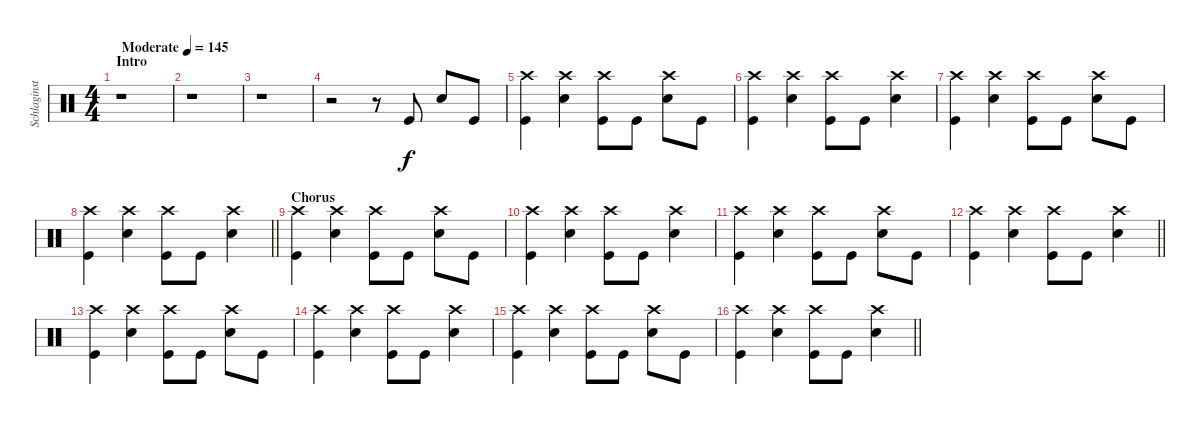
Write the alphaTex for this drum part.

\track ("Schlaginstrumente - Auswahl" "Schlaginst") {instrument percussion}
\staff {score}
\articulation defaults
\ts (4 4)
\section ("" "Intro")
\tempo (145 "Moderate")
\clef neutral
\ks c
r.1{dy f} |
r.1 |
r.1 |
r.2 r.8 "Kick (hit)".8 "Snare (hit) 2".8 "Kick (hit)".8 |
("Kick (hit)" "Crash high (hit)").4 ("Snare (hit) 2" "Crash high (hit)").4 ("Kick (hit)" "Crash high (hit)").8 "Kick (hit)".8 ("Snare (hit) 2" "Crash high (hit)").8 "Kick (hit)".8 |
("Kick (hit)" "Crash high (hit)").4 ("Snare (hit) 2" "Crash high (hit)").4 ("Kick (hit)" "Crash high (hit)").8 "Kick (hit)".8 ("Snare (hit) 2" "Crash high (hit)").4 |
("Kick (hit)" "Crash high (hit)").4 ("Snare (hit) 2" "Crash high (hit)").4 ("Kick (hit)" "Crash high (hit)").8 "Kick (hit)".8 ("Snare (hit) 2" "Crash high (hit)").8 "Kick (hit)".8 |
\barLineRight lightlight
("Kick (hit)" "Crash high (hit)").4 ("Snare (hit) 2" "Crash high (hit)").4 ("Kick (hit)" "Crash high (hit)").8 "Kick (hit)".8 ("Snare (hit) 2" "Crash high (hit)").4 |
\section ("" "Chorus")
("Kick (hit)" "Crash high (hit)").4 ("Snare (hit) 2" "Crash high (hit)").4 ("Kick (hit)" "Crash high (hit)").8 "Kick (hit)".8 ("Snare (hit) 2" "Crash high (hit)").8 "Kick (hit)".8 |
("Kick (hit)" "Crash high (hit)").4 ("Snare (hit) 2" "Crash high (hit)").4 ("Kick (hit)" "Crash high (hit)").8 "Kick (hit)".8 ("Snare (hit) 2" "Crash high (hit)").4 |
("Kick (hit)" "Crash high (hit)").4 ("Snare (hit) 2" "Crash high (hit)").4 ("Kick (hit)" "Crash high (hit)").8 "Kick (hit)".8 ("Snare (hit) 2" "Crash high (hit)").8 "Kick (hit)".8 |
\barLineRight lightlight
("Kick (hit)" "Crash high (hit)").4 ("Snare (hit) 2" "Crash high (hit)").4 ("Kick (hit)" "Crash high (hit)").8 "Kick (hit)".8 ("Snare (hit) 2" "Crash high (hit)").4 |
("Kick (hit)" "Crash high (hit)").4 ("Snare (hit) 2" "Crash high (hit)").4 ("Kick (hit)" "Crash high (hit)").8 "Kick (hit)".8 ("Snare (hit) 2" "Crash high (hit)").8 "Kick (hit)".8 |
("Kick (hit)" "Crash high (hit)").4 ("Snare (hit) 2" "Crash high (hit)").4 ("Kick (hit)" "Crash high (hit)").8 "Kick (hit)".8 ("Snare (hit) 2" "Crash high (hit)").4 |
("Kick (hit)" "Crash high (hit)").4 ("Snare (hit) 2" "Crash high (hit)").4 ("Kick (hit)" "Crash high (hit)").8 "Kick (hit)".8 ("Snare (hit) 2" "Crash high (hit)").8 "Kick (hit)".8 |
\barLineRight lightlight
("Kick (hit)" "Crash high (hit)").4 ("Snare (hit) 2" "Crash high (hit)").4 ("Kick (hit)" "Crash high (hit)").8 "Kick (hit)".8 ("Snare (hit) 2" "Crash high (hit)").4
